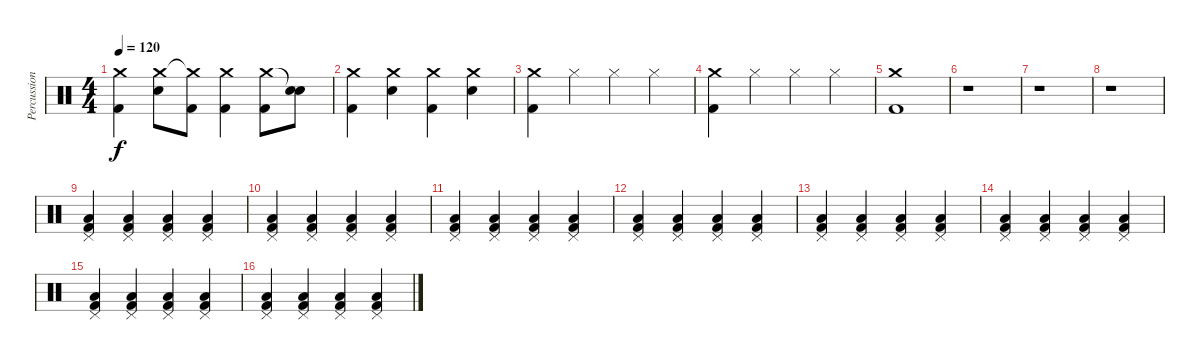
\track ("Percussions" "Percussion") {instrument percussion}
\staff {score}
\articulation defaults
\ts (4 4)
\tempo 120
\clef neutral
\ks c
("Crash medium (hit)" "Kick (hit) 2").4{dy f} ("Crash medium (hit)" "Snare (hit) 2").8 ("Crash medium (hit)"{t} "Kick (hit) 2").8 ("Crash medium (hit)" "Kick (hit) 2").4 ("Crash medium (hit)" "Kick (hit) 2").8 ("Snare (hit)"{t} "Snare (hit) 2").8 |
("Crash medium (hit)" "Kick (hit) 2").4 ("Crash medium (hit)" "Snare (hit) 2").4 ("Crash medium (hit)" "Kick (hit) 2").4 ("Crash medium (hit)" "Snare (hit) 2").4 |
("Crash medium (hit)" "Kick (hit) 2").4 "Hi-Hat (closed)".4 "Hi-Hat (closed)".4 "Hi-Hat (closed)".4 |
("Crash medium (hit)" "Kick (hit) 2").4 "Hi-Hat (closed)".4 "Hi-Hat (closed)".4 "Hi-Hat (closed)".4 |
("Crash medium (hit)" "Kick (hit) 2").1 |
r.1 |
r.1 |
r.1 |
("Pedal Hi-Hat (hit)" "Low Floor Tom (hit)" "Kick (hit) 2").4 ("Pedal Hi-Hat (hit)" "Low Floor Tom (hit)" "Kick (hit) 2").4 ("Pedal Hi-Hat (hit)" "Low Floor Tom (hit)" "Kick (hit) 2").4 ("Pedal Hi-Hat (hit)" "Low Floor Tom (hit)" "Kick (hit) 2").4 |
("Pedal Hi-Hat (hit)" "Low Floor Tom (hit)" "Kick (hit) 2").4 ("Pedal Hi-Hat (hit)" "Low Floor Tom (hit)" "Kick (hit) 2").4 ("Pedal Hi-Hat (hit)" "Low Floor Tom (hit)" "Kick (hit) 2").4 ("Pedal Hi-Hat (hit)" "Low Floor Tom (hit)" "Kick (hit) 2").4 |
("Pedal Hi-Hat (hit)" "Low Floor Tom (hit)" "Kick (hit) 2").4 ("Pedal Hi-Hat (hit)" "Low Floor Tom (hit)" "Kick (hit) 2").4 ("Pedal Hi-Hat (hit)" "Low Floor Tom (hit)" "Kick (hit) 2").4 ("Pedal Hi-Hat (hit)" "Low Floor Tom (hit)" "Kick (hit) 2").4 |
("Pedal Hi-Hat (hit)" "Low Floor Tom (hit)" "Kick (hit) 2").4 ("Pedal Hi-Hat (hit)" "Low Floor Tom (hit)" "Kick (hit) 2").4 ("Pedal Hi-Hat (hit)" "Low Floor Tom (hit)" "Kick (hit) 2").4 ("Pedal Hi-Hat (hit)" "Low Floor Tom (hit)" "Kick (hit) 2").4 |
("Pedal Hi-Hat (hit)" "Low Floor Tom (hit)" "Kick (hit) 2").4 ("Pedal Hi-Hat (hit)" "Low Floor Tom (hit)" "Kick (hit) 2").4 ("Pedal Hi-Hat (hit)" "Low Floor Tom (hit)" "Kick (hit) 2").4 ("Pedal Hi-Hat (hit)" "Low Floor Tom (hit)" "Kick (hit) 2").4 |
("Pedal Hi-Hat (hit)" "Low Floor Tom (hit)" "Kick (hit) 2").4 ("Pedal Hi-Hat (hit)" "Low Floor Tom (hit)" "Kick (hit) 2").4 ("Pedal Hi-Hat (hit)" "Low Floor Tom (hit)" "Kick (hit) 2").4 ("Pedal Hi-Hat (hit)" "Low Floor Tom (hit)" "Kick (hit) 2").4 |
("Pedal Hi-Hat (hit)" "Low Floor Tom (hit)" "Kick (hit) 2").4 ("Pedal Hi-Hat (hit)" "Low Floor Tom (hit)" "Kick (hit) 2").4 ("Pedal Hi-Hat (hit)" "Low Floor Tom (hit)" "Kick (hit) 2").4 ("Pedal Hi-Hat (hit)" "Low Floor Tom (hit)" "Kick (hit) 2").4 |
("Pedal Hi-Hat (hit)" "Low Floor Tom (hit)" "Kick (hit) 2").4 ("Pedal Hi-Hat (hit)" "Low Floor Tom (hit)" "Kick (hit) 2").4 ("Pedal Hi-Hat (hit)" "Low Floor Tom (hit)" "Kick (hit) 2").4 ("Pedal Hi-Hat (hit)" "Low Floor Tom (hit)" "Kick (hit) 2").4
